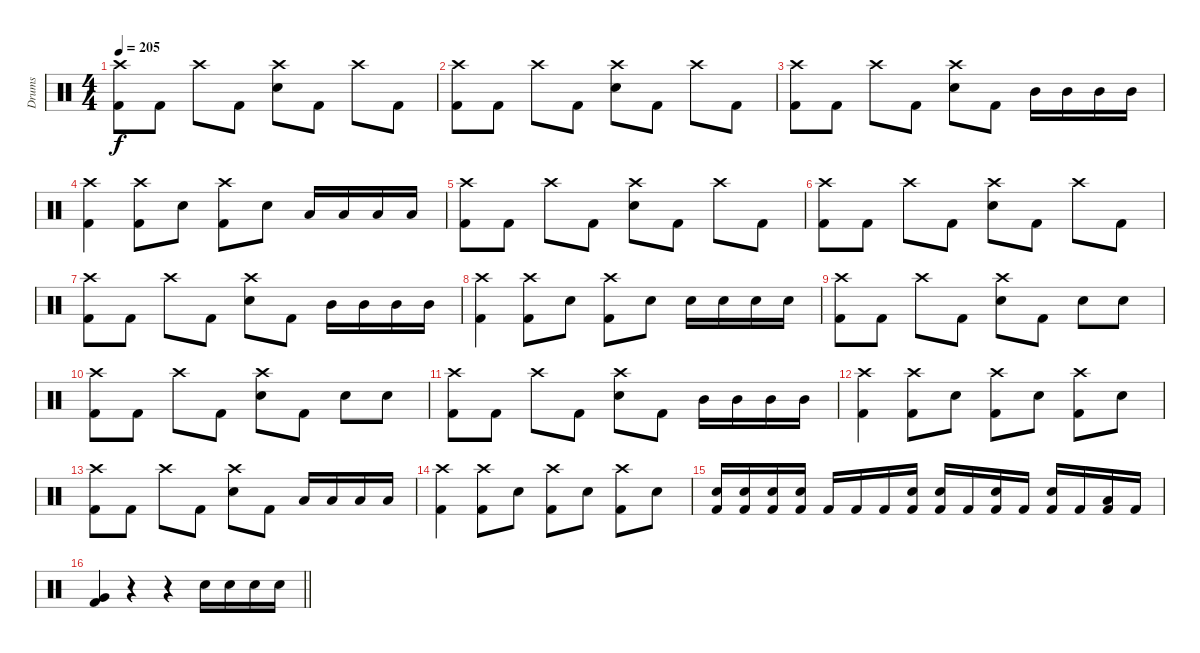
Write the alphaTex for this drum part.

\track ("Drums" "Drums") {instrument percussion}
\staff {score}
\articulation defaults
\ts (4 4)
\section ("" "")
\tempo 205
\clef neutral
\ks c
("Crash high (hit)" "Kick (hit) 2").8{dy f} "Kick (hit) 2".8 "Crash high (hit)".8 "Kick (hit) 2".8 ("Crash high (hit)" "Electric Snare (hit)").8 "Kick (hit) 2".8 "Crash high (hit)".8 "Kick (hit) 2".8 |
("Crash high (hit)" "Kick (hit) 2").8 "Kick (hit) 2".8 "Crash high (hit)".8 "Kick (hit) 2".8 ("Crash high (hit)" "Electric Snare (hit)").8 "Kick (hit) 2".8 "Crash high (hit)".8 "Kick (hit) 2".8 |
("Crash high (hit)" "Kick (hit) 2").8 "Kick (hit) 2".8 "Crash high (hit)".8 "Kick (hit) 2".8 ("Crash high (hit)" "Electric Snare (hit)").8 "Kick (hit) 2".8 "Mid Tom (hit)".16 "Mid Tom (hit)".16 "Mid Tom (hit)".16 "Mid Tom (hit)".16 |
("Crash high (hit)" "Kick (hit) 2").4 ("Crash high (hit)" "Kick (hit) 2").8 "Electric Snare (hit)".8 ("Crash high (hit)" "Kick (hit) 2").8 "Electric Snare (hit)".8 "Low Tom (hit)".16 "Low Tom (hit)".16 "Low Tom (hit)".16 "Low Tom (hit)".16 |
("Crash high (hit)" "Kick (hit) 2").8 "Kick (hit) 2".8 "Crash high (hit)".8 "Kick (hit) 2".8 ("Crash high (hit)" "Electric Snare (hit)").8 "Kick (hit) 2".8 "Crash high (hit)".8 "Kick (hit) 2".8 |
("Crash high (hit)" "Kick (hit) 2").8 "Kick (hit) 2".8 "Crash high (hit)".8 "Kick (hit) 2".8 ("Crash high (hit)" "Electric Snare (hit)").8 "Kick (hit) 2".8 "Crash high (hit)".8 "Kick (hit) 2".8 |
("Crash high (hit)" "Kick (hit) 2").8 "Kick (hit) 2".8 "Crash high (hit)".8 "Kick (hit) 2".8 ("Crash high (hit)" "Electric Snare (hit)").8 "Kick (hit) 2".8 "Mid Tom (hit)".16 "Mid Tom (hit)".16 "Mid Tom (hit)".16 "Mid Tom (hit)".16 |
("Crash high (hit)" "Kick (hit) 2").4 ("Crash high (hit)" "Kick (hit) 2").8 "Electric Snare (hit)".8 ("Crash high (hit)" "Kick (hit) 2").8 "Electric Snare (hit)".8 "Electric Snare (hit)".16 "Electric Snare (hit)".16 "Electric Snare (hit)".16 "Electric Snare (hit)".16 |
("Crash high (hit)" "Kick (hit) 2").8 "Kick (hit) 2".8 "Crash high (hit)".8 "Kick (hit) 2".8 ("Crash high (hit)" "Electric Snare (hit)").8 "Kick (hit) 2".8 "Electric Snare (hit)".8 "Electric Snare (hit)".8 |
("Crash high (hit)" "Kick (hit) 2").8 "Kick (hit) 2".8 "Crash high (hit)".8 "Kick (hit) 2".8 ("Crash high (hit)" "Electric Snare (hit)").8 "Kick (hit) 2".8 "Electric Snare (hit)".8 "Electric Snare (hit)".8 |
("Crash high (hit)" "Kick (hit) 2").8 "Kick (hit) 2".8 "Crash high (hit)".8 "Kick (hit) 2".8 ("Crash high (hit)" "Electric Snare (hit)").8 "Kick (hit) 2".8 "Mid Tom (hit)".16 "Mid Tom (hit)".16 "Mid Tom (hit)".16 "Mid Tom (hit)".16 |
("Crash high (hit)" "Kick (hit) 2").4 ("Crash high (hit)" "Kick (hit) 2").8 "Electric Snare (hit)".8 ("Crash high (hit)" "Kick (hit) 2").8 "Electric Snare (hit)".8 ("Crash high (hit)" "Kick (hit) 2").8 "Electric Snare (hit)".8 |
("Crash high (hit)" "Kick (hit) 2").8 "Kick (hit) 2".8 "Crash high (hit)".8 "Kick (hit) 2".8 ("Crash high (hit)" "Electric Snare (hit)").8 "Kick (hit) 2".8 "Low Tom (hit)".16 "Low Tom (hit)".16 "Low Tom (hit)".16 "Low Tom (hit)".16 |
("Crash high (hit)" "Kick (hit) 2").4 ("Crash high (hit)" "Kick (hit) 2").8 "Electric Snare (hit)".8 ("Crash high (hit)" "Kick (hit) 2").8 "Electric Snare (hit)".8 ("Crash high (hit)" "Kick (hit) 2").8 "Electric Snare (hit)".8 |
("Electric Snare (hit)" "Kick (hit) 2").16 ("Electric Snare (hit)" "Kick (hit) 2").16 ("Electric Snare (hit)" "Kick (hit) 2").16 ("Electric Snare (hit)" "Kick (hit) 2").16 "Kick (hit) 2".16 "Kick (hit) 2".16 "Kick (hit) 2".16 ("Electric Snare (hit)" "Kick (hit) 2").16 ("Electric Snare (hit)" "Kick (hit) 2").16 "Kick (hit) 2".16 ("Electric Snare (hit)" "Kick (hit) 2").16 "Kick (hit) 2".16 ("Electric Snare (hit)" "Kick (hit) 2").16 "Kick (hit) 2".16 ("Low Tom (hit)" "Kick (hit) 2").16 "Kick (hit) 2".16 |
\barLineRight lightlight
("Very Low Tom (hit)" "Kick (hit) 2").4 r.4 r.4 "Electric Snare (hit)".16 "Electric Snare (hit)".16 "Electric Snare (hit)".16 "Electric Snare (hit)".16
